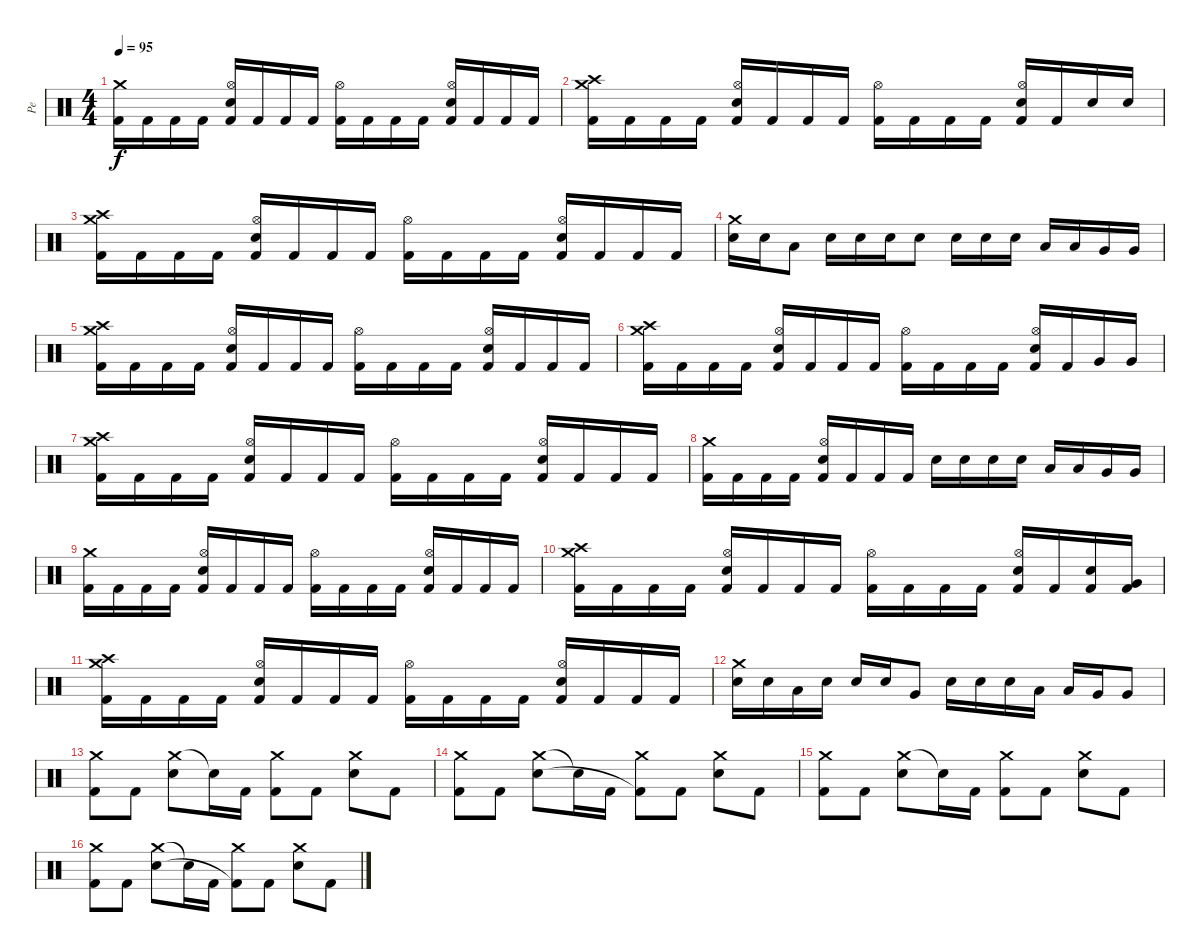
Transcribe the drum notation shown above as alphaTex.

\track ("Pe" "Pe") {instrument percussion}
\staff {score}
\articulation defaults
\ts (4 4)
\tempo 95
\clef neutral
\ks c
("Crash medium (hit)" "Kick (hit) 2").16{dy f} "Kick (hit) 2".16 "Kick (hit) 2".16 "Kick (hit) 2".16 ("Hi-Hat (open)" "Electric Snare (hit)" "Kick (hit) 2").16 "Kick (hit) 2".16 "Kick (hit) 2".16 "Kick (hit) 2".16 ("Hi-Hat (open)" "Kick (hit) 2").16 "Kick (hit) 2".16 "Kick (hit) 2".16 "Kick (hit) 2".16 ("Hi-Hat (open)" "Electric Snare (hit)" "Kick (hit) 2").16 "Kick (hit) 2".16 "Kick (hit) 2".16 "Kick (hit) 2".16 |
("Crash medium (hit)" "Crash high (hit)" "Kick (hit) 2").16 "Kick (hit) 2".16 "Kick (hit) 2".16 "Kick (hit) 2".16 ("Hi-Hat (open)" "Electric Snare (hit)" "Kick (hit) 2").16 "Kick (hit) 2".16 "Kick (hit) 2".16 "Kick (hit) 2".16 ("Hi-Hat (open)" "Kick (hit) 2").16 "Kick (hit) 2".16 "Kick (hit) 2".16 "Kick (hit) 2".16 ("Hi-Hat (open)" "Electric Snare (hit)" "Kick (hit) 2").16 "Kick (hit) 2".16 "Electric Snare (hit)".16 "Electric Snare (hit)".16 |
("Crash medium (hit)" "Crash high (hit)" "Kick (hit) 2").16 "Kick (hit) 2".16 "Kick (hit) 2".16 "Kick (hit) 2".16 ("Hi-Hat (open)" "Electric Snare (hit)" "Kick (hit) 2").16 "Kick (hit) 2".16 "Kick (hit) 2".16 "Kick (hit) 2".16 ("Hi-Hat (open)" "Kick (hit) 2").16 "Kick (hit) 2".16 "Kick (hit) 2".16 "Kick (hit) 2".16 ("Hi-Hat (open)" "Electric Snare (hit)" "Kick (hit) 2").16 "Kick (hit) 2".16 "Kick (hit) 2".16 "Kick (hit) 2".16 |
("Crash medium (hit)" "Electric Snare (hit)").16 "Electric Snare (hit)".16 "Low Tom (hit)".8 "Electric Snare (hit)".16 "Electric Snare (hit)".16 "Electric Snare (hit)".16 "Electric Snare (hit)".8 "Electric Snare (hit)".16 "Electric Snare (hit)".16 "Electric Snare (hit)".16 "Low Tom (hit)".16 "Low Tom (hit)".16 "Very Low Tom (hit)".16 "Very Low Tom (hit)".16 |
("Crash medium (hit)" "Crash high (hit)" "Kick (hit) 2").16 "Kick (hit) 2".16 "Kick (hit) 2".16 "Kick (hit) 2".16 ("Hi-Hat (open)" "Electric Snare (hit)" "Kick (hit) 2").16 "Kick (hit) 2".16 "Kick (hit) 2".16 "Kick (hit) 2".16 ("Hi-Hat (open)" "Kick (hit) 2").16 "Kick (hit) 2".16 "Kick (hit) 2".16 "Kick (hit) 2".16 ("Hi-Hat (open)" "Electric Snare (hit)" "Kick (hit) 2").16 "Kick (hit) 2".16 "Kick (hit) 2".16 "Kick (hit) 2".16 |
("Crash medium (hit)" "Crash high (hit)" "Kick (hit) 2").16 "Kick (hit) 2".16 "Kick (hit) 2".16 "Kick (hit) 2".16 ("Hi-Hat (open)" "Electric Snare (hit)" "Kick (hit) 2").16 "Kick (hit) 2".16 "Kick (hit) 2".16 "Kick (hit) 2".16 ("Hi-Hat (open)" "Kick (hit) 2").16 "Kick (hit) 2".16 "Kick (hit) 2".16 "Kick (hit) 2".16 ("Hi-Hat (open)" "Electric Snare (hit)" "Kick (hit) 2").16 "Kick (hit) 2".16 "Very Low Tom (hit)".16 "Very Low Tom (hit)".16 |
("Crash medium (hit)" "Crash high (hit)" "Kick (hit) 2").16 "Kick (hit) 2".16 "Kick (hit) 2".16 "Kick (hit) 2".16 ("Hi-Hat (open)" "Electric Snare (hit)" "Kick (hit) 2").16 "Kick (hit) 2".16 "Kick (hit) 2".16 "Kick (hit) 2".16 ("Hi-Hat (open)" "Kick (hit) 2").16 "Kick (hit) 2".16 "Kick (hit) 2".16 "Kick (hit) 2".16 ("Hi-Hat (open)" "Electric Snare (hit)" "Kick (hit) 2").16 "Kick (hit) 2".16 "Kick (hit) 2".16 "Kick (hit) 2".16 |
("Crash medium (hit)" "Kick (hit) 2").16 "Kick (hit) 2".16 "Kick (hit) 2".16 "Kick (hit) 2".16 ("Hi-Hat (open)" "Electric Snare (hit)" "Kick (hit) 2").16 "Kick (hit) 2".16 "Kick (hit) 2".16 "Kick (hit) 2".16 "Electric Snare (hit)".16 "Electric Snare (hit)".16 "Electric Snare (hit)".16 "Electric Snare (hit)".16 "Low Tom (hit)".16 "Low Tom (hit)".16 "Very Low Tom (hit)".16 "Very Low Tom (hit)".16 |
("Crash medium (hit)" "Kick (hit) 2").16 "Kick (hit) 2".16 "Kick (hit) 2".16 "Kick (hit) 2".16 ("Hi-Hat (open)" "Electric Snare (hit)" "Kick (hit) 2").16 "Kick (hit) 2".16 "Kick (hit) 2".16 "Kick (hit) 2".16 ("Hi-Hat (open)" "Kick (hit) 2").16 "Kick (hit) 2".16 "Kick (hit) 2".16 "Kick (hit) 2".16 ("Hi-Hat (open)" "Electric Snare (hit)" "Kick (hit) 2").16 "Kick (hit) 2".16 "Kick (hit) 2".16 "Kick (hit) 2".16 |
("Crash medium (hit)" "Crash high (hit)" "Kick (hit) 2").16 "Kick (hit) 2".16 "Kick (hit) 2".16 "Kick (hit) 2".16 ("Hi-Hat (open)" "Electric Snare (hit)" "Kick (hit) 2").16 "Kick (hit) 2".16 "Kick (hit) 2".16 "Kick (hit) 2".16 ("Hi-Hat (open)" "Kick (hit) 2").16 "Kick (hit) 2".16 "Kick (hit) 2".16 "Kick (hit) 2".16 ("Hi-Hat (open)" "Electric Snare (hit)" "Kick (hit) 2").16 "Kick (hit) 2".16 ("Electric Snare (hit)" "Kick (hit) 2").16 ("Very Low Tom (hit)" "Kick (hit) 2").16 |
("Crash medium (hit)" "Crash high (hit)" "Kick (hit) 2").16 "Kick (hit) 2".16 "Kick (hit) 2".16 "Kick (hit) 2".16 ("Hi-Hat (open)" "Electric Snare (hit)" "Kick (hit) 2").16 "Kick (hit) 2".16 "Kick (hit) 2".16 "Kick (hit) 2".16 ("Hi-Hat (open)" "Kick (hit) 2").16 "Kick (hit) 2".16 "Kick (hit) 2".16 "Kick (hit) 2".16 ("Hi-Hat (open)" "Electric Snare (hit)" "Kick (hit) 2").16 "Kick (hit) 2".16 "Kick (hit) 2".16 "Kick (hit) 2".16 |
("Crash medium (hit)" "Electric Snare (hit)").16 "Electric Snare (hit)".16 "Low Tom (hit)".16 "Electric Snare (hit)".16 "Electric Snare (hit)".16 "Electric Snare (hit)".16 "Very Low Tom (hit)".8 "Electric Snare (hit)".16 "Electric Snare (hit)".16 "Electric Snare (hit)".16 "Low Tom (hit)".16 "Low Tom (hit)".16 "Very Low Tom (hit)".16 "Very Low Tom (hit)".8 |
("Crash medium (hit)" "Kick (hit) 2").8 "Kick (hit) 2".8 ("Crash medium (hit)" "Electric Snare (hit)").8 "Snare (hit)"{t}.16 "Kick (hit) 2".16 ("Crash medium (hit)" "Kick (hit) 2").8 "Kick (hit) 2".8 ("Crash medium (hit)" "Electric Snare (hit)").8 "Kick (hit) 2".8 |
("Crash medium (hit)" "Kick (hit) 2").8 "Kick (hit) 2".8 ("Crash medium (hit)" "Electric Snare (hit)").8 "Snare (hit)"{t}.16 "Kick (hit) 2".16 ("Crash medium (hit)" "Kick (hit) 2"{t}).8 "Kick (hit) 2".8 ("Crash medium (hit)" "Electric Snare (hit)").8 "Kick (hit) 2".8 |
("Crash medium (hit)" "Kick (hit) 2").8 "Kick (hit) 2".8 ("Crash medium (hit)" "Electric Snare (hit)").8 "Snare (hit)"{t}.16 "Kick (hit) 2".16 ("Crash medium (hit)" "Kick (hit) 2").8 "Kick (hit) 2".8 ("Crash medium (hit)" "Electric Snare (hit)").8 "Kick (hit) 2".8 |
("Crash medium (hit)" "Kick (hit) 2").8 "Kick (hit) 2".8 ("Crash medium (hit)" "Electric Snare (hit)").8 "Snare (hit)"{t}.16 "Kick (hit) 2".16 ("Crash medium (hit)" "Kick (hit) 2"{t}).8 "Kick (hit) 2".8 ("Crash medium (hit)" "Electric Snare (hit)").8 "Kick (hit) 2".8
